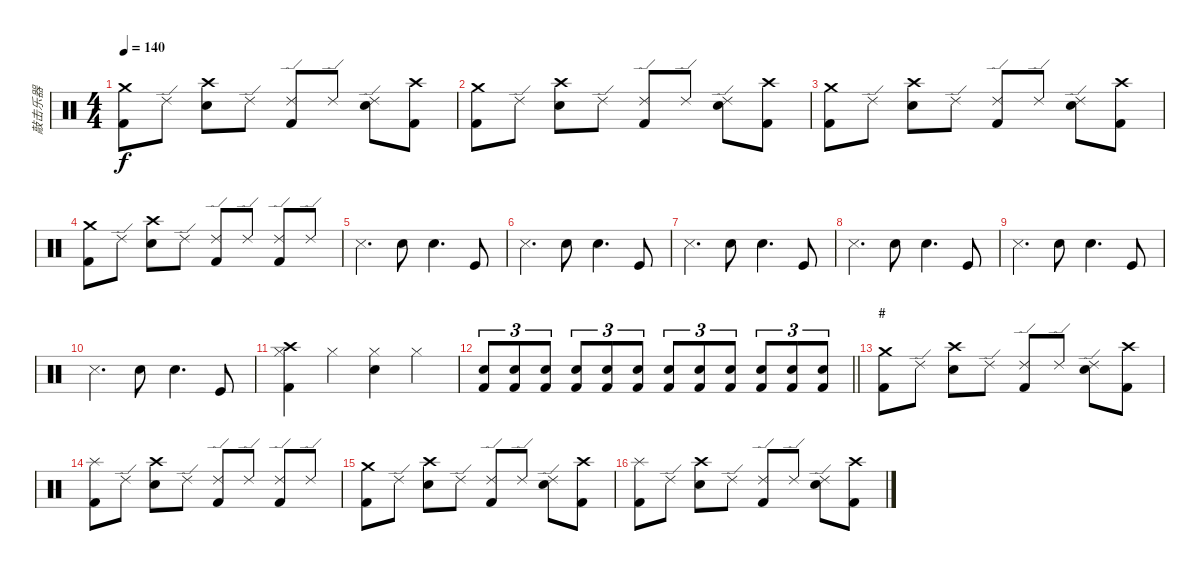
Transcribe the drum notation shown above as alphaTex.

\track ("敲击乐器" "敲击乐器") {instrument percussion}
\staff {score}
\articulation defaults
\ts (4 4)
\tempo 140
\clef neutral
\ks c
("Crash medium (hit)" "Kick (hit) 2").8{dy f} "Ride (edge) 2".8 ("Crash high (hit)" "Snare (hit) 2").8 "Ride (edge) 2".8 ("Ride (edge) 2" "Kick (hit) 2").8 "Ride (edge) 2".8 ("Ride (edge) 2" "Snare (hit) 2").8 ("Crash high (hit)" "Kick (hit) 2").8 |
("Crash medium (hit)" "Kick (hit) 2").8 "Ride (edge) 2".8 ("Crash high (hit)" "Snare (hit) 2").8 "Ride (edge) 2".8 ("Ride (edge) 2" "Kick (hit) 2").8 "Ride (edge) 2".8 ("Ride (edge) 2" "Snare (hit) 2").8 ("Crash high (hit)" "Kick (hit) 2").8 |
("Crash medium (hit)" "Kick (hit) 2").8 "Ride (edge) 2".8 ("Crash high (hit)" "Snare (hit) 2").8 "Ride (edge) 2".8 ("Ride (edge) 2" "Kick (hit) 2").8 "Ride (edge) 2".8 ("Ride (edge) 2" "Snare (hit) 2").8 ("Crash high (hit)" "Kick (hit) 2").8 |
("Crash medium (hit)" "Kick (hit) 2").8 "Ride (edge) 2".8 ("Crash high (hit)" "Snare (hit) 2").8 "Ride (edge) 2".8 ("Ride (edge) 2" "Kick (hit) 2").8 "Ride (edge) 2".8 ("Ride (edge) 2" "Kick (hit) 2").8 "Ride (edge) 2".8 |
"Snare (side stick) 3".4{d} "Snare (hit) 2".8 "Electric Snare (hit)".4{d} "Kick (hit)".8 |
"Snare (side stick) 3".4{d} "Snare (hit) 2".8 "Electric Snare (hit)".4{d} "Kick (hit)".8 |
"Snare (side stick) 3".4{d} "Snare (hit) 2".8 "Electric Snare (hit)".4{d} "Kick (hit)".8 |
"Snare (side stick) 3".4{d} "Snare (hit) 2".8 "Electric Snare (hit)".4{d} "Kick (hit)".8 |
"Snare (side stick) 3".4{d} "Snare (hit) 2".8 "Electric Snare (hit)".4{d} "Kick (hit)".8 |
"Snare (side stick) 3".4{d} "Snare (hit) 2".8 "Electric Snare (hit)".4{d} "Kick (hit)".8 |
("Hi-Hat (closed)" "Crash high (hit)" "Kick (hit) 2").4 "Hi-Hat (closed)".4 ("Hi-Hat (closed)" "Snare (hit) 2").4 "Hi-Hat (closed)".4 |
\barLineRight lightlight
("Electric Snare (hit)" "Kick (hit) 2").8{tu (3 2)} ("Electric Snare (hit)" "Kick (hit) 2").8{tu (3 2)} ("Electric Snare (hit)" "Kick (hit) 2").8{tu (3 2)} ("Electric Snare (hit)" "Kick (hit) 2").8{tu (3 2)} ("Electric Snare (hit)" "Kick (hit) 2").8{tu (3 2)} ("Electric Snare (hit)" "Kick (hit) 2").8{tu (3 2)} ("Electric Snare (hit)" "Kick (hit) 2").8{tu (3 2)} ("Electric Snare (hit)" "Kick (hit) 2").8{tu (3 2)} ("Electric Snare (hit)" "Kick (hit) 2").8{tu (3 2)} ("Electric Snare (hit)" "Kick (hit) 2").8{tu (3 2)} ("Electric Snare (hit)" "Kick (hit) 2").8{tu (3 2)} ("Electric Snare (hit)" "Kick (hit) 2").8{tu (3 2)} |
\section ("" "#")
("Crash medium (hit)" "Kick (hit) 2").8 "Ride (edge) 2".8 ("Crash high (hit)" "Snare (hit) 2").8 "Ride (edge) 2".8 ("Ride (edge) 2" "Kick (hit) 2").8 "Ride (edge) 2".8 ("Ride (edge) 2" "Snare (hit) 2").8 ("Crash high (hit)" "Kick (hit) 2").8 |
("Splash (hit)" "Kick (hit) 2").8 "Ride (edge) 2".8 ("Crash high (hit)" "Snare (hit) 2").8 "Ride (edge) 2".8 ("Ride (edge) 2" "Kick (hit) 2").8 "Ride (edge) 2".8 ("Ride (edge) 2" "Kick (hit) 2").8 "Ride (edge) 2".8 |
("Crash medium (hit)" "Kick (hit) 2").8 "Ride (edge) 2".8 ("Crash high (hit)" "Snare (hit) 2").8 "Ride (edge) 2".8 ("Ride (edge) 2" "Kick (hit) 2").8 "Ride (edge) 2".8 ("Ride (edge) 2" "Snare (hit) 2").8 ("Crash high (hit)" "Kick (hit) 2").8 |
("Splash (hit)" "Kick (hit) 2").8 "Ride (edge) 2".8 ("Crash high (hit)" "Snare (hit) 2").8 "Ride (edge) 2".8 ("Ride (edge) 2" "Kick (hit) 2").8 "Ride (edge) 2".8 ("Ride (edge) 2" "Snare (hit) 2").8 ("Crash high (hit)" "Kick (hit) 2").8
